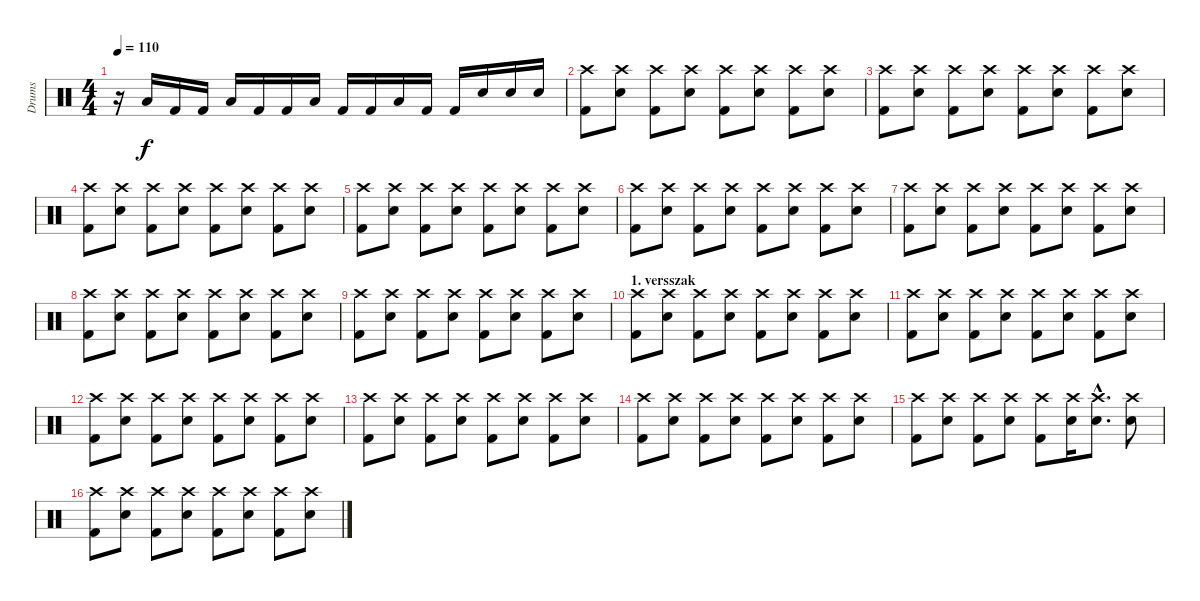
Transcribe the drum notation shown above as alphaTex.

\track ("Drums" "Drums") {instrument percussion}
\staff {score}
\articulation defaults
\ts (4 4)
\tempo 110
\clef neutral
\ks c
r.16{dy f} "Low Tom (hit)".16 "Kick (hit) 2".16 "Kick (hit) 2".16 "Low Tom (hit)".16 "Kick (hit) 2".16 "Kick (hit) 2".16 "Low Tom (hit)".16 "Kick (hit) 2".16 "Kick (hit) 2".16 "Low Tom (hit)".16 "Kick (hit) 2".16 "Kick (hit) 2".16 "Snare (hit) 2".16 "Snare (hit) 2".16 "Snare (hit) 2".16 |
("Crash high (hit)" "Kick (hit) 2").8 ("Crash high (hit)" "Snare (hit) 2").8 ("Crash high (hit)" "Kick (hit) 2").8 ("Crash high (hit)" "Snare (hit) 2").8 ("Crash high (hit)" "Kick (hit) 2").8 ("Crash high (hit)" "Snare (hit) 2").8 ("Crash high (hit)" "Kick (hit) 2").8 ("Crash high (hit)" "Snare (hit) 2").8 |
("Crash high (hit)" "Kick (hit) 2").8 ("Crash high (hit)" "Snare (hit) 2").8 ("Crash high (hit)" "Kick (hit) 2").8 ("Crash high (hit)" "Snare (hit) 2").8 ("Crash high (hit)" "Kick (hit) 2").8 ("Crash high (hit)" "Snare (hit) 2").8 ("Crash high (hit)" "Kick (hit) 2").8 ("Crash high (hit)" "Snare (hit) 2").8 |
("Crash high (hit)" "Kick (hit) 2").8 ("Crash high (hit)" "Snare (hit) 2").8 ("Crash high (hit)" "Kick (hit) 2").8 ("Crash high (hit)" "Snare (hit) 2").8 ("Crash high (hit)" "Kick (hit) 2").8 ("Crash high (hit)" "Snare (hit) 2").8 ("Crash high (hit)" "Kick (hit) 2").8 ("Crash high (hit)" "Snare (hit) 2").8 |
("Crash high (hit)" "Kick (hit) 2").8 ("Crash high (hit)" "Snare (hit) 2").8 ("Crash high (hit)" "Kick (hit) 2").8 ("Crash high (hit)" "Snare (hit) 2").8 ("Crash high (hit)" "Kick (hit) 2").8 ("Crash high (hit)" "Snare (hit) 2").8 ("Crash high (hit)" "Kick (hit) 2").8 ("Crash high (hit)" "Snare (hit) 2").8 |
("Crash high (hit)" "Kick (hit) 2").8 ("Crash high (hit)" "Snare (hit) 2").8 ("Crash high (hit)" "Kick (hit) 2").8 ("Crash high (hit)" "Snare (hit) 2").8 ("Crash high (hit)" "Kick (hit) 2").8 ("Crash high (hit)" "Snare (hit) 2").8 ("Crash high (hit)" "Kick (hit) 2").8 ("Crash high (hit)" "Snare (hit) 2").8 |
("Crash high (hit)" "Kick (hit) 2").8 ("Crash high (hit)" "Snare (hit) 2").8 ("Crash high (hit)" "Kick (hit) 2").8 ("Crash high (hit)" "Snare (hit) 2").8 ("Crash high (hit)" "Kick (hit) 2").8 ("Crash high (hit)" "Snare (hit) 2").8 ("Crash high (hit)" "Kick (hit) 2").8 ("Crash high (hit)" "Snare (hit) 2").8 |
("Crash high (hit)" "Kick (hit) 2").8 ("Crash high (hit)" "Snare (hit) 2").8 ("Crash high (hit)" "Kick (hit) 2").8 ("Crash high (hit)" "Snare (hit) 2").8 ("Crash high (hit)" "Kick (hit) 2").8 ("Crash high (hit)" "Snare (hit) 2").8 ("Crash high (hit)" "Kick (hit) 2").8 ("Crash high (hit)" "Snare (hit) 2").8 |
("Crash high (hit)" "Kick (hit) 2").8 ("Crash high (hit)" "Snare (hit) 2").8 ("Crash high (hit)" "Kick (hit) 2").8 ("Crash high (hit)" "Snare (hit) 2").8 ("Crash high (hit)" "Kick (hit) 2").8 ("Crash high (hit)" "Snare (hit) 2").8 ("Crash high (hit)" "Kick (hit) 2").8 ("Crash high (hit)" "Snare (hit) 2").8 |
\section ("" "1. versszak")
("Crash high (hit)" "Kick (hit) 2").8 ("Crash high (hit)" "Snare (hit) 2").8 ("Crash high (hit)" "Kick (hit) 2").8 ("Crash high (hit)" "Snare (hit) 2").8 ("Crash high (hit)" "Kick (hit) 2").8 ("Crash high (hit)" "Snare (hit) 2").8 ("Crash high (hit)" "Kick (hit) 2").8 ("Crash high (hit)" "Snare (hit) 2").8 |
("Crash high (hit)" "Kick (hit) 2").8 ("Crash high (hit)" "Snare (hit) 2").8 ("Crash high (hit)" "Kick (hit) 2").8 ("Crash high (hit)" "Snare (hit) 2").8 ("Crash high (hit)" "Kick (hit) 2").8 ("Crash high (hit)" "Snare (hit) 2").8 ("Crash high (hit)" "Kick (hit) 2").8 ("Crash high (hit)" "Snare (hit) 2").8 |
("Crash high (hit)" "Kick (hit) 2").8 ("Crash high (hit)" "Snare (hit) 2").8 ("Crash high (hit)" "Kick (hit) 2").8 ("Crash high (hit)" "Snare (hit) 2").8 ("Crash high (hit)" "Kick (hit) 2").8 ("Crash high (hit)" "Snare (hit) 2").8 ("Crash high (hit)" "Kick (hit) 2").8 ("Crash high (hit)" "Snare (hit) 2").8 |
("Crash high (hit)" "Kick (hit) 2").8 ("Crash high (hit)" "Snare (hit) 2").8 ("Crash high (hit)" "Kick (hit) 2").8 ("Crash high (hit)" "Snare (hit) 2").8 ("Crash high (hit)" "Kick (hit) 2").8 ("Crash high (hit)" "Snare (hit) 2").8 ("Crash high (hit)" "Kick (hit) 2").8 ("Crash high (hit)" "Snare (hit) 2").8 |
("Crash high (hit)" "Kick (hit) 2").8 ("Crash high (hit)" "Snare (hit) 2").8 ("Crash high (hit)" "Kick (hit) 2").8 ("Crash high (hit)" "Snare (hit) 2").8 ("Crash high (hit)" "Kick (hit) 2").8 ("Crash high (hit)" "Snare (hit) 2").8 ("Crash high (hit)" "Kick (hit) 2").8 ("Crash high (hit)" "Snare (hit) 2").8 |
("Crash high (hit)" "Kick (hit) 2").8 ("Crash high (hit)" "Snare (hit) 2").8 ("Crash high (hit)" "Kick (hit) 2").8 ("Crash high (hit)" "Snare (hit) 2").8 ("Crash high (hit)" "Kick (hit) 2").8 ("Crash high (hit)" "Snare (hit) 2").16 ("Crash high (hit)"{hac} "Snare (hit) 2"{hac}).8{d} ("Crash high (hit)" "Snare (hit) 2").8 |
("Crash high (hit)" "Kick (hit) 2").8 ("Crash high (hit)" "Snare (hit) 2").8 ("Crash high (hit)" "Kick (hit) 2").8 ("Crash high (hit)" "Snare (hit) 2").8 ("Crash high (hit)" "Kick (hit) 2").8 ("Crash high (hit)" "Snare (hit) 2").8 ("Crash high (hit)" "Kick (hit) 2").8 ("Crash high (hit)" "Snare (hit) 2").8
